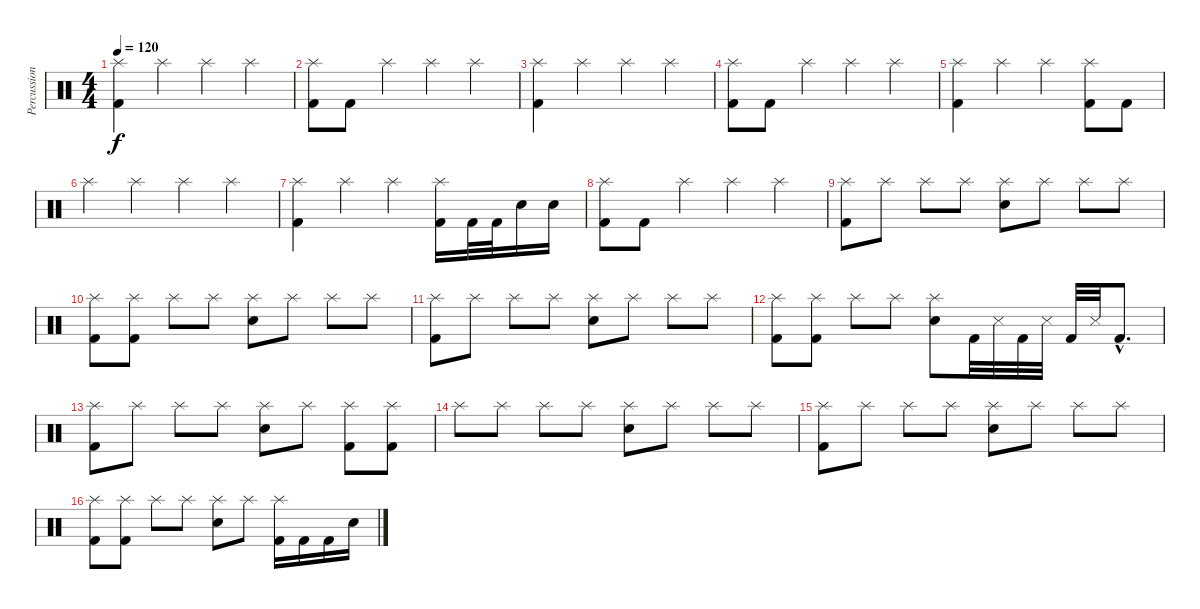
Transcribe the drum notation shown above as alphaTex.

\track ("Percussion" "Percussion") {instrument percussion}
\staff {score}
\articulation defaults
\ts (4 4)
\tempo 120
\clef neutral
\ks c
("Kick (hit) 2" "Splash (hit)").4{dy f} "Splash (hit)".4 "Splash (hit)".4 "Splash (hit)".4 |
("Kick (hit) 2" "Splash (hit)").8 "Kick (hit) 2".8 "Splash (hit)".4 "Splash (hit)".4 "Splash (hit)".4 |
("Kick (hit) 2" "Splash (hit)").4 "Splash (hit)".4 "Splash (hit)".4 "Splash (hit)".4 |
("Kick (hit) 2" "Splash (hit)").8 "Kick (hit) 2".8 "Splash (hit)".4 "Splash (hit)".4 "Splash (hit)".4 |
("Kick (hit) 2" "Splash (hit)").4 "Splash (hit)".4 "Splash (hit)".4 ("Kick (hit) 2" "Splash (hit)").8 "Kick (hit) 2".8 |
"Splash (hit)".4 "Splash (hit)".4 "Splash (hit)".4 "Splash (hit)".4 |
("Kick (hit) 2" "Splash (hit)").4 "Splash (hit)".4 "Splash (hit)".4 ("Kick (hit) 2" "Splash (hit)").16 "Kick (hit) 2".32 "Kick (hit) 2".32 "Snare (hit) 2".16 "Snare (hit) 2".16 |
("Kick (hit) 2" "Splash (hit)").8 "Kick (hit) 2".8 "Splash (hit)".4 "Splash (hit)".4 "Splash (hit)".4 |
("Kick (hit) 2" "Splash (hit)").8 "Splash (hit)".8 "Splash (hit)".8 "Splash (hit)".8 ("Electric Snare (hit)" "Splash (hit)").8 "Splash (hit)".8 "Splash (hit)".8 "Splash (hit)".8 |
("Kick (hit) 2" "Splash (hit)").8 ("Kick (hit) 2" "Splash (hit)").8 "Splash (hit)".8 "Splash (hit)".8 ("Electric Snare (hit)" "Splash (hit)").8 "Splash (hit)".8 "Splash (hit)".8 "Splash (hit)".8 |
("Kick (hit) 2" "Splash (hit)").8 "Splash (hit)".8 "Splash (hit)".8 "Splash (hit)".8 ("Electric Snare (hit)" "Splash (hit)").8 "Splash (hit)".8 "Splash (hit)".8 "Splash (hit)".8 |
("Kick (hit) 2" "Splash (hit)").8 ("Kick (hit) 2" "Splash (hit)").8 "Splash (hit)".8 "Splash (hit)".8 ("Electric Snare (hit)" "Splash (hit)").8 "Kick (hit) 2".32 "Snare (side stick) 3".32 "Kick (hit) 2".32 "Snare (side stick) 3".32 "Kick (hit) 2".32 "Snare (side stick) 3".32 "Kick (hit) 2"{hac}.8{d} |
("Kick (hit) 2" "Splash (hit)").8 "Splash (hit)".8 "Splash (hit)".8 "Splash (hit)".8 ("Electric Snare (hit)" "Splash (hit)").8 "Splash (hit)".8 ("Kick (hit) 2" "Splash (hit)").8 ("Kick (hit) 2" "Splash (hit)").8 |
"Splash (hit)".8 "Splash (hit)".8 "Splash (hit)".8 "Splash (hit)".8 ("Electric Snare (hit)" "Splash (hit)").8 "Splash (hit)".8 "Splash (hit)".8 "Splash (hit)".8 |
("Kick (hit) 2" "Splash (hit)").8 "Splash (hit)".8 "Splash (hit)".8 "Splash (hit)".8 ("Electric Snare (hit)" "Splash (hit)").8 "Splash (hit)".8 "Splash (hit)".8 "Splash (hit)".8 |
("Kick (hit) 2" "Splash (hit)").8 ("Kick (hit) 2" "Splash (hit)").8 "Splash (hit)".8 "Splash (hit)".8 ("Electric Snare (hit)" "Splash (hit)").8 "Splash (hit)".8 ("Kick (hit) 2" "Splash (hit)").16 "Kick (hit) 2".16 "Kick (hit) 2".16 "Electric Snare (hit)".16
